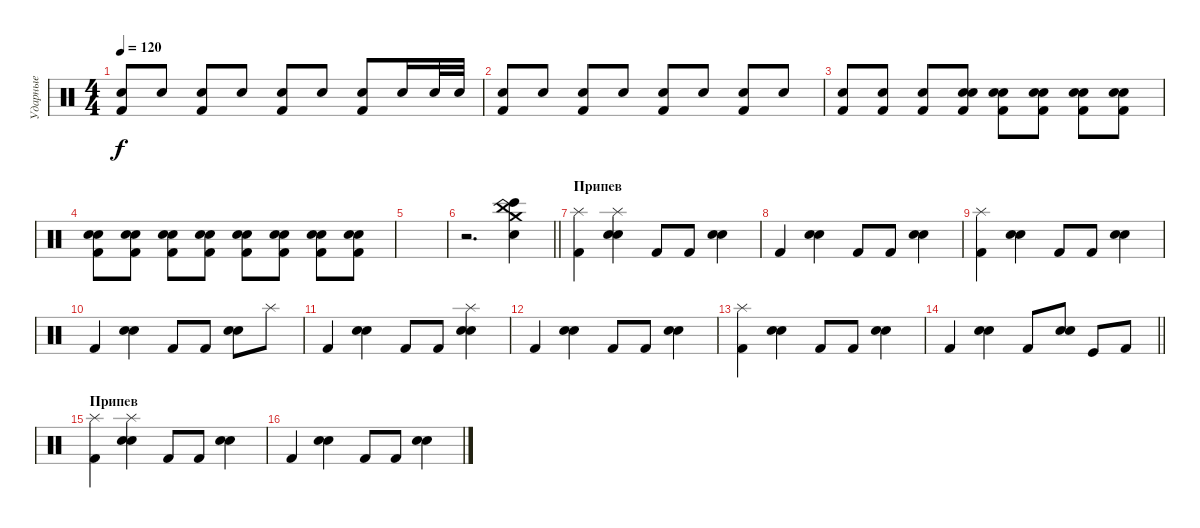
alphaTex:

\track ("Ударные" "Ударные") {instrument percussion}
\staff {score}
\articulation defaults
\ts (4 4)
\tempo 120
\clef neutral
\ks c
("Electric Snare (hit)" "Kick (hit) 2").8{dy f} "Electric Snare (hit)".8 ("Electric Snare (hit)" "Kick (hit) 2").8 "Electric Snare (hit)".8 ("Electric Snare (hit)" "Kick (hit) 2").8 "Electric Snare (hit)".8 ("Electric Snare (hit)" "Kick (hit) 2").8 "Electric Snare (hit)".16 "Electric Snare (hit)".32 "Electric Snare (hit)".32 |
("Electric Snare (hit)" "Kick (hit) 2").8 "Electric Snare (hit)".8 ("Electric Snare (hit)" "Kick (hit) 2").8 "Electric Snare (hit)".8 ("Electric Snare (hit)" "Kick (hit) 2").8 "Electric Snare (hit)".8 ("Electric Snare (hit)" "Kick (hit) 2").8 "Electric Snare (hit)".8 |
("Electric Snare (hit)" "Kick (hit) 2").8 ("Electric Snare (hit)" "Kick (hit) 2").8 ("Electric Snare (hit)" "Kick (hit) 2").8 ("Electric Snare (hit)" "Snare (hit) 2" "Kick (hit) 2").8 ("Electric Snare (hit)" "Snare (hit) 2" "Kick (hit) 2").8 ("Electric Snare (hit)" "Snare (hit) 2" "Kick (hit) 2").8 ("Electric Snare (hit)" "Snare (hit) 2" "Kick (hit) 2").8 ("Electric Snare (hit)" "Snare (hit) 2" "Kick (hit) 2").8 |
("Electric Snare (hit)" "Snare (hit) 2" "Kick (hit) 2").8 ("Electric Snare (hit)" "Snare (hit) 2" "Kick (hit) 2").8 ("Electric Snare (hit)" "Snare (hit) 2" "Kick (hit) 2").8 ("Electric Snare (hit)" "Snare (hit) 2" "Kick (hit) 2").8 ("Electric Snare (hit)" "Snare (hit) 2" "Kick (hit) 2").8 ("Electric Snare (hit)" "Snare (hit) 2" "Kick (hit) 2").8 ("Electric Snare (hit)" "Snare (hit) 2" "Kick (hit) 2").8 ("Electric Snare (hit)" "Snare (hit) 2" "Kick (hit) 2").8 |
|
\barLineRight lightlight
r.2{d} ("China (hit)" "Crash medium (hit)" "Electric Snare (hit)" "Bongo High (hit)").4 |
\section ("" "Припев")
("Splash (hit)" "Kick (hit) 2").4 ("Splash (hit)" "Electric Snare (hit)" "Snare (hit) 2").4 "Kick (hit) 2".8 "Kick (hit) 2".8 ("Electric Snare (hit)" "Snare (hit) 2").4 |
"Kick (hit) 2".4 ("Electric Snare (hit)" "Snare (hit) 2").4 "Kick (hit) 2".8 "Kick (hit) 2".8 ("Electric Snare (hit)" "Snare (hit) 2").4 |
("Splash (hit)" "Kick (hit) 2").4 ("Electric Snare (hit)" "Snare (hit) 2").4 "Kick (hit) 2".8 "Kick (hit) 2".8 ("Electric Snare (hit)" "Snare (hit) 2").4 |
"Kick (hit) 2".4 ("Electric Snare (hit)" "Snare (hit) 2").4 "Kick (hit) 2".8 "Kick (hit) 2".8 ("Electric Snare (hit)" "Snare (hit) 2").8 "Splash (hit)".8 |
"Kick (hit) 2".4 ("Electric Snare (hit)" "Snare (hit) 2").4 "Kick (hit) 2".8 "Kick (hit) 2".8 ("Splash (hit)" "Electric Snare (hit)" "Snare (hit) 2").4 |
"Kick (hit) 2".4 ("Electric Snare (hit)" "Snare (hit) 2").4 "Kick (hit) 2".8 "Kick (hit) 2".8 ("Electric Snare (hit)" "Snare (hit) 2").4 |
("Splash (hit)" "Kick (hit) 2").4 ("Electric Snare (hit)" "Snare (hit) 2").4 "Kick (hit) 2".8 "Kick (hit) 2".8 ("Electric Snare (hit)" "Snare (hit) 2").4 |
\barLineRight lightlight "Kick (hit) 2".4
("Electric Snare (hit)" "Snare (hit) 2").4 "Kick (hit) 2".8 ("Electric Snare (hit)" "Snare (hit) 2").8 "Kick (hit)".8 "Kick (hit) 2".8 |
\section ("" "Припев")
("Splash (hit)" "Kick (hit) 2").4 ("Splash (hit)" "Electric Snare (hit)" "Snare (hit) 2").4 "Kick (hit) 2".8 "Kick (hit) 2".8 ("Electric Snare (hit)" "Snare (hit) 2").4 |
"Kick (hit) 2".4 ("Electric Snare (hit)" "Snare (hit) 2").4 "Kick (hit) 2".8 "Kick (hit) 2".8 ("Electric Snare (hit)" "Snare (hit) 2").4
